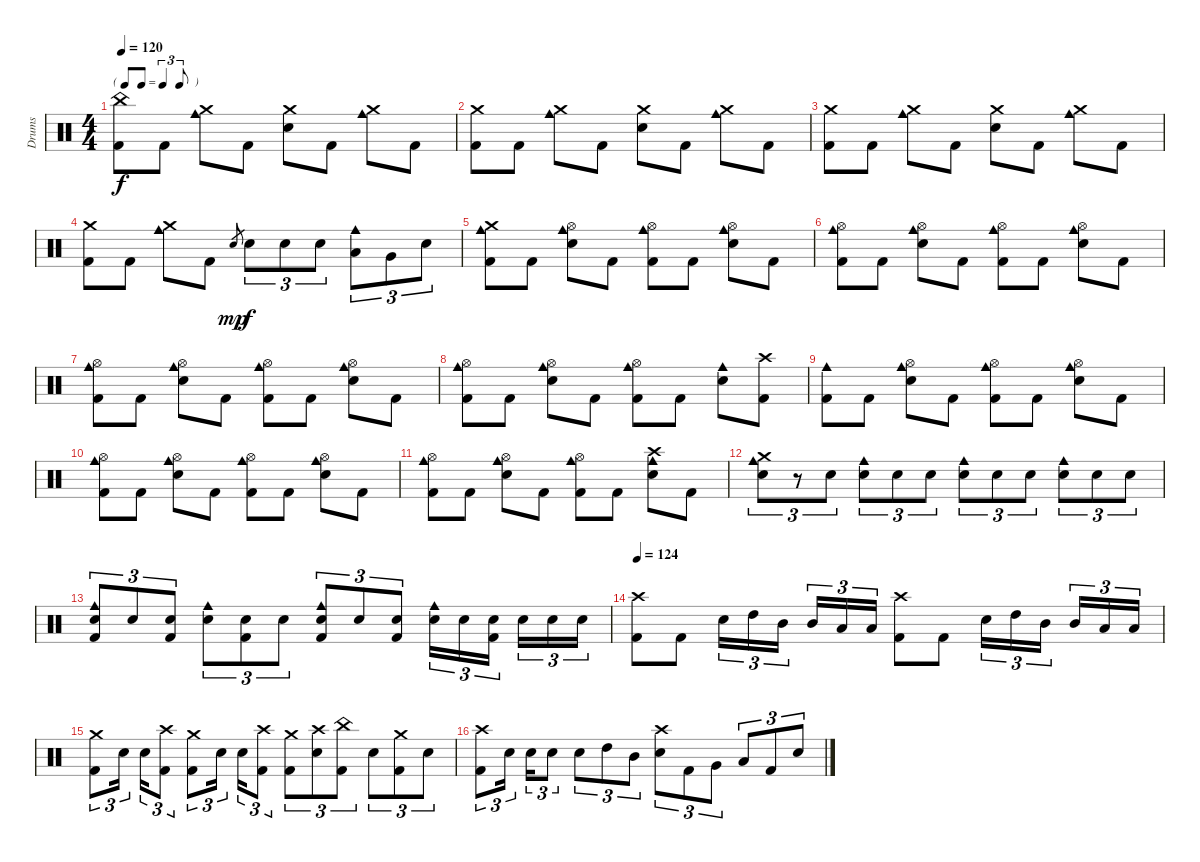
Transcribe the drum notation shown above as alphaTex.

\track ("Drums" "Drums") {instrument percussion}
\staff {score}
\articulation defaults
\ts (4 4)
\tf triplet8th
\tempo 120
\clef neutral
\ks c
("China (hit)" "Kick (hit) 2").8{dy f} "Kick (hit) 2".8 ("Crash medium (hit)" "Cowbell medium (hit)").8 "Kick (hit) 2".8 ("Crash medium (hit)" "Electric Snare (hit)").8 "Kick (hit) 2".8 ("Crash medium (hit)" "Cowbell medium (hit)").8 "Kick (hit) 2".8 |
("Crash medium (hit)" "Kick (hit) 2").8 "Kick (hit) 2".8 ("Crash medium (hit)" "Cowbell medium (hit)").8 "Kick (hit) 2".8 ("Crash medium (hit)" "Electric Snare (hit)").8 "Kick (hit) 2".8 ("Crash medium (hit)" "Cowbell medium (hit)").8 "Kick (hit) 2".8 |
("Crash medium (hit)" "Kick (hit) 2").8 "Kick (hit) 2".8 ("Crash medium (hit)" "Cowbell medium (hit)").8 "Kick (hit) 2".8 ("Crash medium (hit)" "Electric Snare (hit)").8 "Kick (hit) 2".8 ("Crash medium (hit)" "Cowbell medium (hit)").8 "Kick (hit) 2".8 |
("Crash medium (hit)" "Kick (hit) 2").8 "Kick (hit) 2".8 ("Crash medium (hit)" "Cowbell medium (hit)").8 "Kick (hit) 2".8 "Electric Snare (hit)".8{gr dy mp} "Electric Snare (hit)".8{tu (3 2) dy f} "Electric Snare (hit)".8{tu (3 2)} "Electric Snare (hit)".8{tu (3 2)} ("Cowbell medium (hit)" "Low Tom (hit)").8{tu (3 2)} "Very Low Tom (hit)".8{tu (3 2)} "Electric Snare (hit)".8{tu (3 2)} |
("Crash medium (hit)" "Cowbell medium (hit)" "Kick (hit) 2").8 "Kick (hit) 2".8 ("Hi-Hat (open)" "Cowbell medium (hit)" "Electric Snare (hit)").8 "Kick (hit) 2".8 ("Hi-Hat (open)" "Cowbell medium (hit)" "Kick (hit) 2").8 "Kick (hit) 2".8 ("Hi-Hat (open)" "Cowbell medium (hit)" "Electric Snare (hit)").8 "Kick (hit) 2".8 |
("Hi-Hat (open)" "Cowbell medium (hit)" "Kick (hit) 2").8 "Kick (hit) 2".8 ("Hi-Hat (open)" "Cowbell medium (hit)" "Electric Snare (hit)").8 "Kick (hit) 2".8 ("Hi-Hat (open)" "Cowbell medium (hit)" "Kick (hit) 2").8 "Kick (hit) 2".8 ("Hi-Hat (open)" "Cowbell medium (hit)" "Electric Snare (hit)").8 "Kick (hit) 2".8 |
("Hi-Hat (open)" "Cowbell medium (hit)" "Kick (hit) 2").8 "Kick (hit) 2".8 ("Hi-Hat (open)" "Cowbell medium (hit)" "Electric Snare (hit)").8 "Kick (hit) 2".8 ("Hi-Hat (open)" "Cowbell medium (hit)" "Kick (hit) 2").8 "Kick (hit) 2".8 ("Hi-Hat (open)" "Cowbell medium (hit)" "Electric Snare (hit)").8 "Kick (hit) 2".8 |
("Hi-Hat (open)" "Cowbell medium (hit)" "Kick (hit) 2").8 "Kick (hit) 2".8 ("Hi-Hat (open)" "Cowbell medium (hit)" "Electric Snare (hit)").8 "Kick (hit) 2".8 ("Hi-Hat (open)" "Cowbell medium (hit)" "Kick (hit) 2").8 "Kick (hit) 2".8 ("Cowbell medium (hit)" "Electric Snare (hit)").8 ("Crash high (hit)" "Kick (hit) 2").8 |
("Cowbell medium (hit)" "Kick (hit) 2").8 "Kick (hit) 2".8 ("Hi-Hat (open)" "Cowbell medium (hit)" "Electric Snare (hit)").8 "Kick (hit) 2".8 ("Hi-Hat (open)" "Cowbell medium (hit)" "Kick (hit) 2").8 "Kick (hit) 2".8 ("Hi-Hat (open)" "Cowbell medium (hit)" "Electric Snare (hit)").8 "Kick (hit) 2".8 |
("Hi-Hat (open)" "Cowbell medium (hit)" "Kick (hit) 2").8 "Kick (hit) 2".8 ("Hi-Hat (open)" "Cowbell medium (hit)" "Electric Snare (hit)").8 "Kick (hit) 2".8 ("Hi-Hat (open)" "Cowbell medium (hit)" "Kick (hit) 2").8 "Kick (hit) 2".8 ("Hi-Hat (open)" "Cowbell medium (hit)" "Electric Snare (hit)").8 "Kick (hit) 2".8 |
("Hi-Hat (open)" "Cowbell medium (hit)" "Kick (hit) 2").8 "Kick (hit) 2".8 ("Hi-Hat (open)" "Cowbell medium (hit)" "Electric Snare (hit)").8 "Kick (hit) 2".8 ("Hi-Hat (open)" "Cowbell medium (hit)" "Kick (hit) 2").8 "Kick (hit) 2".8 ("Crash high (hit)" "Cowbell medium (hit)" "Electric Snare (hit)").8 "Kick (hit) 2".8 |
("Crash medium (hit)" "Cowbell medium (hit)" "Electric Snare (hit)").8{tu (3 2)} r.8{tu (3 2)} "Electric Snare (hit)".8{tu (3 2)} ("Cowbell medium (hit)" "Electric Snare (hit)").8{tu (3 2)} "Electric Snare (hit)".8{tu (3 2)} "Electric Snare (hit)".8{tu (3 2)} ("Cowbell medium (hit)" "Electric Snare (hit)").8{tu (3 2)} "Electric Snare (hit)".8{tu (3 2)} "Electric Snare (hit)".8{tu (3 2)} ("Cowbell medium (hit)" "Electric Snare (hit)").8{tu (3 2)} "Electric Snare (hit)".8{tu (3 2)} "Electric Snare (hit)".8{tu (3 2)} |
("Cowbell medium (hit)" "Electric Snare (hit)" "Kick (hit) 2").8{tu (3 2)} "Electric Snare (hit)".8{tu (3 2)} ("Electric Snare (hit)" "Kick (hit) 2").8{tu (3 2)} ("Cowbell medium (hit)" "Electric Snare (hit)").8{tu (3 2)} ("Electric Snare (hit)" "Kick (hit) 2").8{tu (3 2)} "Electric Snare (hit)".8{tu (3 2)} ("Cowbell medium (hit)" "Electric Snare (hit)" "Kick (hit) 2").8{tu (3 2)} "Electric Snare (hit)".8{tu (3 2)} ("Electric Snare (hit)" "Kick (hit) 2").8{tu (3 2)} ("Cowbell medium (hit)" "Electric Snare (hit)").16{tu (3 2)} "Electric Snare (hit)".16{tu (3 2)} ("Electric Snare (hit)" "Kick (hit) 2").16{tu (3 2) beam splitsecondary} "Electric Snare (hit)".16{tu (3 2)} "Electric Snare (hit)".16{tu (3 2)} "Electric Snare (hit)".16{tu (3 2)} |
\tempo 124
("Crash high (hit)" "Kick (hit) 2").8 "Kick (hit) 2".8 "Electric Snare (hit)".16{tu (3 2)} "High Tom (hit)".16{tu (3 2)} "Mid Tom (hit)".16{tu (3 2) beam splitsecondary} "Mid Tom (hit)".16{tu (3 2)} "Low Tom (hit)".16{tu (3 2)} "Low Tom (hit)".16{tu (3 2)} ("Crash high (hit)" "Kick (hit) 2").8 "Kick (hit) 2".8 "Electric Snare (hit)".16{tu (3 2)} "High Tom (hit)".16{tu (3 2)} "Mid Tom (hit)".16{tu (3 2) beam splitsecondary} "Mid Tom (hit)".16{tu (3 2)} "Low Tom (hit)".16{tu (3 2)} "Low Tom (hit)".16{tu (3 2)} |
("Crash medium (hit)" "Kick (hit) 2").8{tu (3 2)} "Electric Snare (hit)".16{tu (3 2)} "Electric Snare (hit)".16{tu (3 2)} ("Crash high (hit)" "Kick (hit) 2").8{tu (3 2)} ("Crash medium (hit)" "Kick (hit) 2").8{tu (3 2)} "Electric Snare (hit)".16{tu (3 2)} "Electric Snare (hit)".16{tu (3 2)} ("Crash high (hit)" "Kick (hit) 2").8{tu (3 2)} ("Crash medium (hit)" "Kick (hit) 2").8{tu (3 2)} ("Crash high (hit)" "Electric Snare (hit)").8{tu (3 2)} ("China (hit)" "Kick (hit) 2").8{tu (3 2)} "Electric Snare (hit)".8{tu (3 2)} ("Crash medium (hit)" "Kick (hit) 2").8{tu (3 2)} "Electric Snare (hit)".8{tu (3 2)} |
("Crash high (hit)" "Kick (hit) 2").8{tu (3 2)} "Electric Snare (hit)".16{tu (3 2)} "Electric Snare (hit)".16{tu (3 2)} "Electric Snare (hit)".8{tu (3 2)} "Electric Snare (hit)".8{tu (3 2)} "High Tom (hit)".8{tu (3 2)} "Mid Tom (hit)".8{tu (3 2)} ("Crash high (hit)" "Electric Snare (hit)").8{tu (3 2)} "Kick (hit) 2".8{tu (3 2)} "Very Low Tom (hit)".8{tu (3 2)} "Low Floor Tom (hit)".8{tu (3 2)} "Kick (hit) 2".8{tu (3 2)} "Electric Snare (hit)".8{tu (3 2)}
